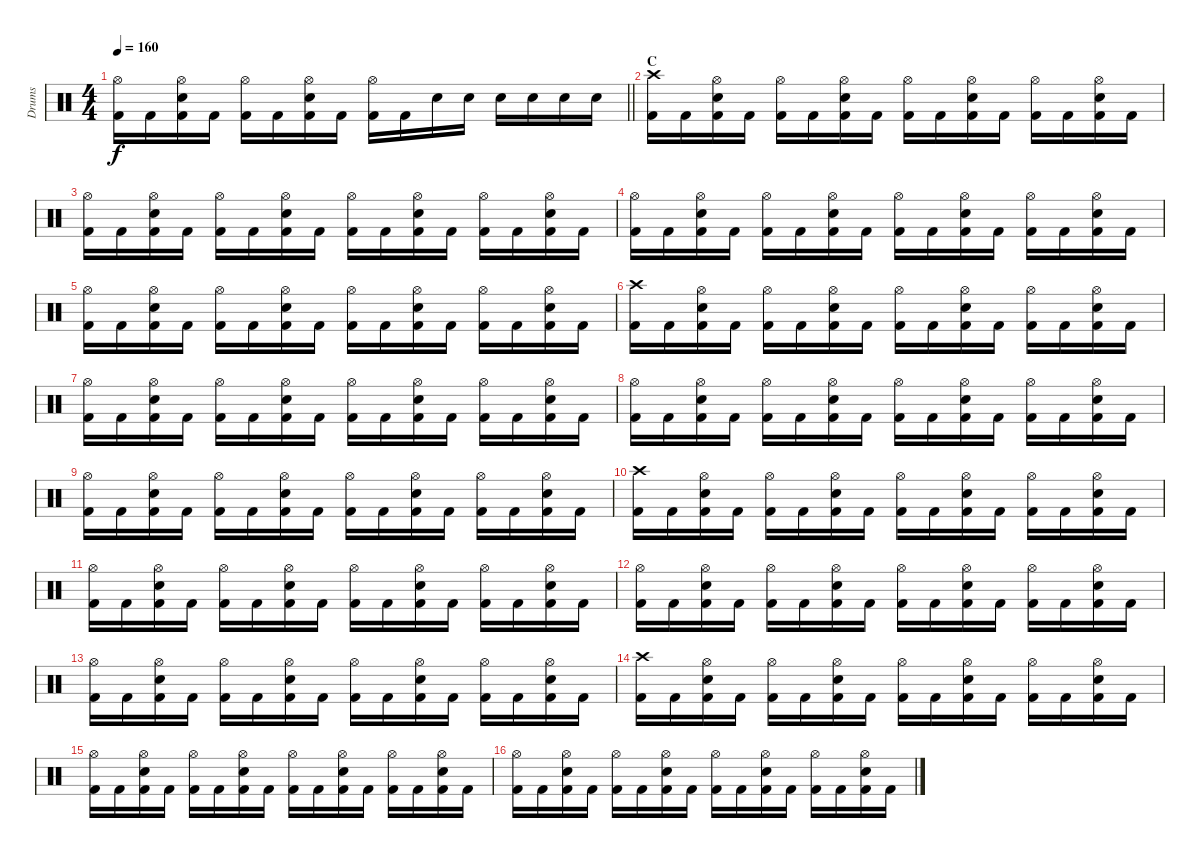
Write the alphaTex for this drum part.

\track ("Drums" "Drums") {instrument percussion}
\staff {score}
\articulation defaults
\ts (4 4)
\tempo 160
\clef neutral
\barLineRight lightlight
\ks c
("Hi-Hat (open)" "Kick (hit) 2").16{dy f} "Kick (hit) 2".16 ("Hi-Hat (open)" "Snare (hit) 2" "Kick (hit) 2").16 "Kick (hit) 2".16 ("Hi-Hat (open)" "Kick (hit) 2").16 "Kick (hit) 2".16 ("Hi-Hat (open)" "Snare (hit) 2" "Kick (hit) 2").16 "Kick (hit) 2".16 ("Hi-Hat (open)" "Kick (hit) 2").16 "Kick (hit) 2".16 "Snare (hit) 2".16 "Snare (hit) 2".16 "Snare (hit) 2".16 "Snare (hit) 2".16 "Snare (hit) 2".16 "Snare (hit) 2".16 |
\section ("" "C")
("Crash high (hit)" "Kick (hit) 2").16 "Kick (hit) 2".16 ("Hi-Hat (open)" "Snare (hit) 2" "Kick (hit) 2").16 "Kick (hit) 2".16 ("Hi-Hat (open)" "Kick (hit) 2").16 "Kick (hit) 2".16 ("Hi-Hat (open)" "Snare (hit) 2" "Kick (hit) 2").16 "Kick (hit) 2".16 ("Hi-Hat (open)" "Kick (hit) 2").16 "Kick (hit) 2".16 ("Hi-Hat (open)" "Snare (hit) 2" "Kick (hit) 2").16 "Kick (hit) 2".16 ("Hi-Hat (open)" "Kick (hit) 2").16 "Kick (hit) 2".16 ("Hi-Hat (open)" "Snare (hit) 2" "Kick (hit) 2").16 "Kick (hit) 2".16 |
("Hi-Hat (open)" "Kick (hit) 2").16 "Kick (hit) 2".16 ("Hi-Hat (open)" "Snare (hit) 2" "Kick (hit) 2").16 "Kick (hit) 2".16 ("Hi-Hat (open)" "Kick (hit) 2").16 "Kick (hit) 2".16 ("Hi-Hat (open)" "Snare (hit) 2" "Kick (hit) 2").16 "Kick (hit) 2".16 ("Hi-Hat (open)" "Kick (hit) 2").16 "Kick (hit) 2".16 ("Hi-Hat (open)" "Snare (hit) 2" "Kick (hit) 2").16 "Kick (hit) 2".16 ("Hi-Hat (open)" "Kick (hit) 2").16 "Kick (hit) 2".16 ("Hi-Hat (open)" "Snare (hit) 2" "Kick (hit) 2").16 "Kick (hit) 2".16 |
("Hi-Hat (open)" "Kick (hit) 2").16 "Kick (hit) 2".16 ("Hi-Hat (open)" "Snare (hit) 2" "Kick (hit) 2").16 "Kick (hit) 2".16 ("Hi-Hat (open)" "Kick (hit) 2").16 "Kick (hit) 2".16 ("Hi-Hat (open)" "Snare (hit) 2" "Kick (hit) 2").16 "Kick (hit) 2".16 ("Hi-Hat (open)" "Kick (hit) 2").16 "Kick (hit) 2".16 ("Hi-Hat (open)" "Snare (hit) 2" "Kick (hit) 2").16 "Kick (hit) 2".16 ("Hi-Hat (open)" "Kick (hit) 2").16 "Kick (hit) 2".16 ("Hi-Hat (open)" "Snare (hit) 2" "Kick (hit) 2").16 "Kick (hit) 2".16 |
("Hi-Hat (open)" "Kick (hit) 2").16 "Kick (hit) 2".16 ("Hi-Hat (open)" "Snare (hit) 2" "Kick (hit) 2").16 "Kick (hit) 2".16 ("Hi-Hat (open)" "Kick (hit) 2").16 "Kick (hit) 2".16 ("Hi-Hat (open)" "Snare (hit) 2" "Kick (hit) 2").16 "Kick (hit) 2".16 ("Hi-Hat (open)" "Kick (hit) 2").16 "Kick (hit) 2".16 ("Hi-Hat (open)" "Snare (hit) 2" "Kick (hit) 2").16 "Kick (hit) 2".16 ("Hi-Hat (open)" "Kick (hit) 2").16 "Kick (hit) 2".16 ("Hi-Hat (open)" "Snare (hit) 2" "Kick (hit) 2").16 "Kick (hit) 2".16 |
("Crash high (hit)" "Kick (hit) 2").16 "Kick (hit) 2".16 ("Hi-Hat (open)" "Snare (hit) 2" "Kick (hit) 2").16 "Kick (hit) 2".16 ("Hi-Hat (open)" "Kick (hit) 2").16 "Kick (hit) 2".16 ("Hi-Hat (open)" "Snare (hit) 2" "Kick (hit) 2").16 "Kick (hit) 2".16 ("Hi-Hat (open)" "Kick (hit) 2").16 "Kick (hit) 2".16 ("Hi-Hat (open)" "Snare (hit) 2" "Kick (hit) 2").16 "Kick (hit) 2".16 ("Hi-Hat (open)" "Kick (hit) 2").16 "Kick (hit) 2".16 ("Hi-Hat (open)" "Snare (hit) 2" "Kick (hit) 2").16 "Kick (hit) 2".16 |
("Hi-Hat (open)" "Kick (hit) 2").16 "Kick (hit) 2".16 ("Hi-Hat (open)" "Snare (hit) 2" "Kick (hit) 2").16 "Kick (hit) 2".16 ("Hi-Hat (open)" "Kick (hit) 2").16 "Kick (hit) 2".16 ("Hi-Hat (open)" "Snare (hit) 2" "Kick (hit) 2").16 "Kick (hit) 2".16 ("Hi-Hat (open)" "Kick (hit) 2").16 "Kick (hit) 2".16 ("Hi-Hat (open)" "Snare (hit) 2" "Kick (hit) 2").16 "Kick (hit) 2".16 ("Hi-Hat (open)" "Kick (hit) 2").16 "Kick (hit) 2".16 ("Hi-Hat (open)" "Snare (hit) 2" "Kick (hit) 2").16 "Kick (hit) 2".16 |
("Hi-Hat (open)" "Kick (hit) 2").16 "Kick (hit) 2".16 ("Hi-Hat (open)" "Snare (hit) 2" "Kick (hit) 2").16 "Kick (hit) 2".16 ("Hi-Hat (open)" "Kick (hit) 2").16 "Kick (hit) 2".16 ("Hi-Hat (open)" "Snare (hit) 2" "Kick (hit) 2").16 "Kick (hit) 2".16 ("Hi-Hat (open)" "Kick (hit) 2").16 "Kick (hit) 2".16 ("Hi-Hat (open)" "Snare (hit) 2" "Kick (hit) 2").16 "Kick (hit) 2".16 ("Hi-Hat (open)" "Kick (hit) 2").16 "Kick (hit) 2".16 ("Hi-Hat (open)" "Snare (hit) 2" "Kick (hit) 2").16 "Kick (hit) 2".16 |
("Hi-Hat (open)" "Kick (hit) 2").16 "Kick (hit) 2".16 ("Hi-Hat (open)" "Snare (hit) 2" "Kick (hit) 2").16 "Kick (hit) 2".16 ("Hi-Hat (open)" "Kick (hit) 2").16 "Kick (hit) 2".16 ("Hi-Hat (open)" "Snare (hit) 2" "Kick (hit) 2").16 "Kick (hit) 2".16 ("Hi-Hat (open)" "Kick (hit) 2").16 "Kick (hit) 2".16 ("Hi-Hat (open)" "Snare (hit) 2" "Kick (hit) 2").16 "Kick (hit) 2".16 ("Hi-Hat (open)" "Kick (hit) 2").16 "Kick (hit) 2".16 ("Hi-Hat (open)" "Snare (hit) 2" "Kick (hit) 2").16 "Kick (hit) 2".16 |
("Crash high (hit)" "Kick (hit) 2").16 "Kick (hit) 2".16 ("Hi-Hat (open)" "Snare (hit) 2" "Kick (hit) 2").16 "Kick (hit) 2".16 ("Hi-Hat (open)" "Kick (hit) 2").16 "Kick (hit) 2".16 ("Hi-Hat (open)" "Snare (hit) 2" "Kick (hit) 2").16 "Kick (hit) 2".16 ("Hi-Hat (open)" "Kick (hit) 2").16 "Kick (hit) 2".16 ("Hi-Hat (open)" "Snare (hit) 2" "Kick (hit) 2").16 "Kick (hit) 2".16 ("Hi-Hat (open)" "Kick (hit) 2").16 "Kick (hit) 2".16 ("Hi-Hat (open)" "Snare (hit) 2" "Kick (hit) 2").16 "Kick (hit) 2".16 |
("Hi-Hat (open)" "Kick (hit) 2").16 "Kick (hit) 2".16 ("Hi-Hat (open)" "Snare (hit) 2" "Kick (hit) 2").16 "Kick (hit) 2".16 ("Hi-Hat (open)" "Kick (hit) 2").16 "Kick (hit) 2".16 ("Hi-Hat (open)" "Snare (hit) 2" "Kick (hit) 2").16 "Kick (hit) 2".16 ("Hi-Hat (open)" "Kick (hit) 2").16 "Kick (hit) 2".16 ("Hi-Hat (open)" "Snare (hit) 2" "Kick (hit) 2").16 "Kick (hit) 2".16 ("Hi-Hat (open)" "Kick (hit) 2").16 "Kick (hit) 2".16 ("Hi-Hat (open)" "Snare (hit) 2" "Kick (hit) 2").16 "Kick (hit) 2".16 |
("Hi-Hat (open)" "Kick (hit) 2").16 "Kick (hit) 2".16 ("Hi-Hat (open)" "Snare (hit) 2" "Kick (hit) 2").16 "Kick (hit) 2".16 ("Hi-Hat (open)" "Kick (hit) 2").16 "Kick (hit) 2".16 ("Hi-Hat (open)" "Snare (hit) 2" "Kick (hit) 2").16 "Kick (hit) 2".16 ("Hi-Hat (open)" "Kick (hit) 2").16 "Kick (hit) 2".16 ("Hi-Hat (open)" "Snare (hit) 2" "Kick (hit) 2").16 "Kick (hit) 2".16 ("Hi-Hat (open)" "Kick (hit) 2").16 "Kick (hit) 2".16 ("Hi-Hat (open)" "Snare (hit) 2" "Kick (hit) 2").16 "Kick (hit) 2".16 |
("Hi-Hat (open)" "Kick (hit) 2").16 "Kick (hit) 2".16 ("Hi-Hat (open)" "Snare (hit) 2" "Kick (hit) 2").16 "Kick (hit) 2".16 ("Hi-Hat (open)" "Kick (hit) 2").16 "Kick (hit) 2".16 ("Hi-Hat (open)" "Snare (hit) 2" "Kick (hit) 2").16 "Kick (hit) 2".16 ("Hi-Hat (open)" "Kick (hit) 2").16 "Kick (hit) 2".16 ("Hi-Hat (open)" "Snare (hit) 2" "Kick (hit) 2").16 "Kick (hit) 2".16 ("Hi-Hat (open)" "Kick (hit) 2").16 "Kick (hit) 2".16 ("Hi-Hat (open)" "Snare (hit) 2" "Kick (hit) 2").16 "Kick (hit) 2".16 |
("Crash high (hit)" "Kick (hit) 2").16 "Kick (hit) 2".16 ("Hi-Hat (open)" "Snare (hit) 2" "Kick (hit) 2").16 "Kick (hit) 2".16 ("Hi-Hat (open)" "Kick (hit) 2").16 "Kick (hit) 2".16 ("Hi-Hat (open)" "Snare (hit) 2" "Kick (hit) 2").16 "Kick (hit) 2".16 ("Hi-Hat (open)" "Kick (hit) 2").16 "Kick (hit) 2".16 ("Hi-Hat (open)" "Snare (hit) 2" "Kick (hit) 2").16 "Kick (hit) 2".16 ("Hi-Hat (open)" "Kick (hit) 2").16 "Kick (hit) 2".16 ("Hi-Hat (open)" "Snare (hit) 2" "Kick (hit) 2").16 "Kick (hit) 2".16 |
("Hi-Hat (open)" "Kick (hit) 2").16 "Kick (hit) 2".16 ("Hi-Hat (open)" "Snare (hit) 2" "Kick (hit) 2").16 "Kick (hit) 2".16 ("Hi-Hat (open)" "Kick (hit) 2").16 "Kick (hit) 2".16 ("Hi-Hat (open)" "Snare (hit) 2" "Kick (hit) 2").16 "Kick (hit) 2".16 ("Hi-Hat (open)" "Kick (hit) 2").16 "Kick (hit) 2".16 ("Hi-Hat (open)" "Snare (hit) 2" "Kick (hit) 2").16 "Kick (hit) 2".16 ("Hi-Hat (open)" "Kick (hit) 2").16 "Kick (hit) 2".16 ("Hi-Hat (open)" "Snare (hit) 2" "Kick (hit) 2").16 "Kick (hit) 2".16 |
("Hi-Hat (open)" "Kick (hit) 2").16 "Kick (hit) 2".16 ("Hi-Hat (open)" "Snare (hit) 2" "Kick (hit) 2").16 "Kick (hit) 2".16 ("Hi-Hat (open)" "Kick (hit) 2").16 "Kick (hit) 2".16 ("Hi-Hat (open)" "Snare (hit) 2" "Kick (hit) 2").16 "Kick (hit) 2".16 ("Hi-Hat (open)" "Kick (hit) 2").16 "Kick (hit) 2".16 ("Hi-Hat (open)" "Snare (hit) 2" "Kick (hit) 2").16 "Kick (hit) 2".16 ("Hi-Hat (open)" "Kick (hit) 2").16 "Kick (hit) 2".16 ("Hi-Hat (open)" "Snare (hit) 2" "Kick (hit) 2").16 "Kick (hit) 2".16
